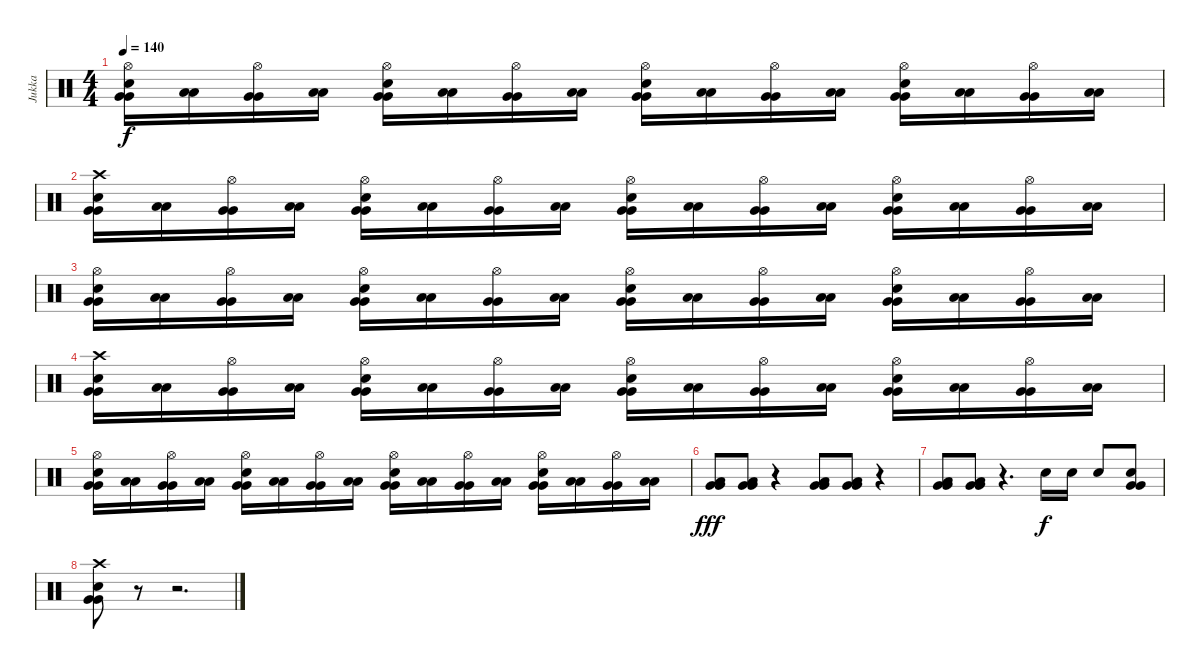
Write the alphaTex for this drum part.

\track ("Jukka" "Jukka") {instrument percussion}
\staff {score}
\articulation defaults
\ts (4 4)
\tempo 140
\clef neutral
\ks c
("Hi-Hat (open)" "Electric Snare (hit)" "Very Low Tom (hit)" "Very Low Tom (hit)").16{dy f} ("Low Floor Tom (hit)" "Low Floor Tom (hit)").16 ("Hi-Hat (open)" "Very Low Tom (hit)" "Very Low Tom (hit)").16 ("Low Floor Tom (hit)" "Low Floor Tom (hit)").16 ("Hi-Hat (open)" "Electric Snare (hit)" "Very Low Tom (hit)" "Very Low Tom (hit)").16 ("Low Floor Tom (hit)" "Low Floor Tom (hit)").16 ("Hi-Hat (open)" "Very Low Tom (hit)" "Very Low Tom (hit)").16 ("Low Floor Tom (hit)" "Low Floor Tom (hit)").16 ("Hi-Hat (open)" "Electric Snare (hit)" "Very Low Tom (hit)" "Very Low Tom (hit)").16 ("Low Floor Tom (hit)" "Low Floor Tom (hit)").16 ("Hi-Hat (open)" "Very Low Tom (hit)" "Very Low Tom (hit)").16 ("Low Floor Tom (hit)" "Low Floor Tom (hit)").16 ("Hi-Hat (open)" "Electric Snare (hit)" "Very Low Tom (hit)" "Very Low Tom (hit)").16 ("Low Floor Tom (hit)" "Low Floor Tom (hit)").16 ("Hi-Hat (open)" "Very Low Tom (hit)" "Very Low Tom (hit)").16 ("Low Floor Tom (hit)" "Low Floor Tom (hit)").16 |
("Crash high (hit)" "Electric Snare (hit)" "Very Low Tom (hit)" "Very Low Tom (hit)").16 ("Low Floor Tom (hit)" "Low Floor Tom (hit)").16 ("Hi-Hat (open)" "Very Low Tom (hit)" "Very Low Tom (hit)").16 ("Low Floor Tom (hit)" "Low Floor Tom (hit)").16 ("Hi-Hat (open)" "Electric Snare (hit)" "Very Low Tom (hit)" "Very Low Tom (hit)").16 ("Low Floor Tom (hit)" "Low Floor Tom (hit)").16 ("Hi-Hat (open)" "Very Low Tom (hit)" "Very Low Tom (hit)").16 ("Low Floor Tom (hit)" "Low Floor Tom (hit)").16 ("Hi-Hat (open)" "Electric Snare (hit)" "Very Low Tom (hit)" "Very Low Tom (hit)").16 ("Low Floor Tom (hit)" "Low Floor Tom (hit)").16 ("Hi-Hat (open)" "Very Low Tom (hit)" "Very Low Tom (hit)").16 ("Low Floor Tom (hit)" "Low Floor Tom (hit)").16 ("Hi-Hat (open)" "Electric Snare (hit)" "Very Low Tom (hit)" "Very Low Tom (hit)").16 ("Low Floor Tom (hit)" "Low Floor Tom (hit)").16 ("Hi-Hat (open)" "Very Low Tom (hit)" "Very Low Tom (hit)").16 ("Low Floor Tom (hit)" "Low Floor Tom (hit)").16 |
("Hi-Hat (open)" "Electric Snare (hit)" "Very Low Tom (hit)" "Very Low Tom (hit)").16 ("Low Floor Tom (hit)" "Low Floor Tom (hit)").16 ("Hi-Hat (open)" "Very Low Tom (hit)" "Very Low Tom (hit)").16 ("Low Floor Tom (hit)" "Low Floor Tom (hit)").16 ("Hi-Hat (open)" "Electric Snare (hit)" "Very Low Tom (hit)" "Very Low Tom (hit)").16 ("Low Floor Tom (hit)" "Low Floor Tom (hit)").16 ("Hi-Hat (open)" "Very Low Tom (hit)" "Very Low Tom (hit)").16 ("Low Floor Tom (hit)" "Low Floor Tom (hit)").16 ("Hi-Hat (open)" "Electric Snare (hit)" "Very Low Tom (hit)" "Very Low Tom (hit)").16 ("Low Floor Tom (hit)" "Low Floor Tom (hit)").16 ("Hi-Hat (open)" "Very Low Tom (hit)" "Very Low Tom (hit)").16 ("Low Floor Tom (hit)" "Low Floor Tom (hit)").16 ("Hi-Hat (open)" "Electric Snare (hit)" "Very Low Tom (hit)" "Very Low Tom (hit)").16 ("Low Floor Tom (hit)" "Low Floor Tom (hit)").16 ("Hi-Hat (open)" "Very Low Tom (hit)" "Very Low Tom (hit)").16 ("Low Floor Tom (hit)" "Low Floor Tom (hit)").16 |
("Crash high (hit)" "Electric Snare (hit)" "Very Low Tom (hit)" "Very Low Tom (hit)").16 ("Low Floor Tom (hit)" "Low Floor Tom (hit)").16 ("Hi-Hat (open)" "Very Low Tom (hit)" "Very Low Tom (hit)").16 ("Low Floor Tom (hit)" "Low Floor Tom (hit)").16 ("Hi-Hat (open)" "Electric Snare (hit)" "Very Low Tom (hit)" "Very Low Tom (hit)").16 ("Low Floor Tom (hit)" "Low Floor Tom (hit)").16 ("Hi-Hat (open)" "Very Low Tom (hit)" "Very Low Tom (hit)").16 ("Low Floor Tom (hit)" "Low Floor Tom (hit)").16 ("Hi-Hat (open)" "Electric Snare (hit)" "Very Low Tom (hit)" "Very Low Tom (hit)").16 ("Low Floor Tom (hit)" "Low Floor Tom (hit)").16 ("Hi-Hat (open)" "Very Low Tom (hit)" "Very Low Tom (hit)").16 ("Low Floor Tom (hit)" "Low Floor Tom (hit)").16 ("Hi-Hat (open)" "Electric Snare (hit)" "Very Low Tom (hit)" "Very Low Tom (hit)").16 ("Low Floor Tom (hit)" "Low Floor Tom (hit)").16 ("Hi-Hat (open)" "Very Low Tom (hit)" "Very Low Tom (hit)").16 ("Low Floor Tom (hit)" "Low Floor Tom (hit)").16 |
("Hi-Hat (open)" "Electric Snare (hit)" "Very Low Tom (hit)" "Very Low Tom (hit)").16 ("Low Floor Tom (hit)" "Low Floor Tom (hit)").16 ("Hi-Hat (open)" "Very Low Tom (hit)" "Very Low Tom (hit)").16 ("Low Floor Tom (hit)" "Low Floor Tom (hit)").16 ("Hi-Hat (open)" "Electric Snare (hit)" "Very Low Tom (hit)" "Very Low Tom (hit)").16 ("Low Floor Tom (hit)" "Low Floor Tom (hit)").16 ("Hi-Hat (open)" "Very Low Tom (hit)" "Very Low Tom (hit)").16 ("Low Floor Tom (hit)" "Low Floor Tom (hit)").16 ("Hi-Hat (open)" "Electric Snare (hit)" "Very Low Tom (hit)" "Very Low Tom (hit)").16 ("Low Floor Tom (hit)" "Low Floor Tom (hit)").16 ("Hi-Hat (open)" "Very Low Tom (hit)" "Very Low Tom (hit)").16 ("Low Floor Tom (hit)" "Low Floor Tom (hit)").16 ("Hi-Hat (open)" "Electric Snare (hit)" "Very Low Tom (hit)" "Very Low Tom (hit)").16 ("Low Floor Tom (hit)" "Low Floor Tom (hit)").16 ("Hi-Hat (open)" "Very Low Tom (hit)" "Very Low Tom (hit)").16 ("Low Floor Tom (hit)" "Low Floor Tom (hit)").16 |
("Low Tom (hit)" "Very Low Tom (hit)" "Very Low Tom (hit)").8{dy fff} ("Low Tom (hit)" "Very Low Tom (hit)" "Very Low Tom (hit)").8 r.4 ("Low Tom (hit)" "Very Low Tom (hit)" "Very Low Tom (hit)").8 ("Low Tom (hit)" "Very Low Tom (hit)" "Very Low Tom (hit)").8 r.4 |
("Low Tom (hit)" "Very Low Tom (hit)" "Very Low Tom (hit)").8 ("Low Tom (hit)" "Very Low Tom (hit)" "Very Low Tom (hit)").8 r.4{d} "Electric Snare (hit)".16{dy f} "Electric Snare (hit)".16 "Electric Snare (hit)".8 ("Electric Snare (hit)" "Very Low Tom (hit)" "Very Low Tom (hit)").8 |
("Crash high (hit)" "Electric Snare (hit)" "Very Low Tom (hit)" "Very Low Tom (hit)").8 r.8 r.2{d}
